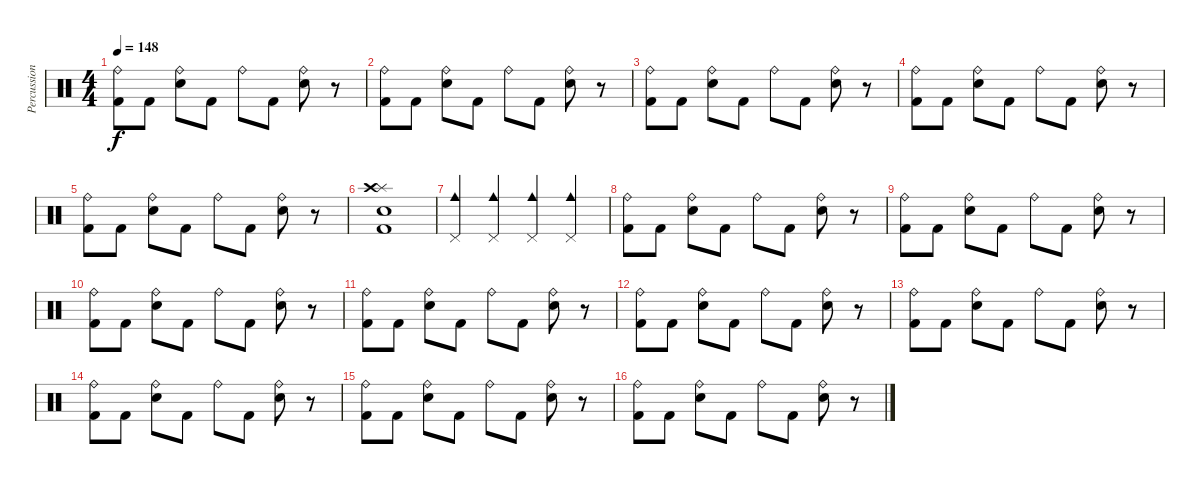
\track ("Percussions" "Percussion") {instrument percussion}
\staff {score}
\articulation defaults
\ts (4 4)
\tempo 148
\clef neutral
\ks c
("Kick (hit) 2" "Ride (bell)").8{dy f} "Kick (hit) 2".8 ("Electric Snare (hit)" "Ride (bell)").8 "Kick (hit) 2".8 "Ride (bell)".8 "Kick (hit) 2".8 ("Electric Snare (hit)" "Ride (bell)").8 r.8 |
("Kick (hit) 2" "Ride (bell)").8 "Kick (hit) 2".8 ("Electric Snare (hit)" "Ride (bell)").8 "Kick (hit) 2".8 "Ride (bell)".8 "Kick (hit) 2".8 ("Electric Snare (hit)" "Ride (bell)").8 r.8 |
("Kick (hit) 2" "Ride (bell)").8 "Kick (hit) 2".8 ("Electric Snare (hit)" "Ride (bell)").8 "Kick (hit) 2".8 "Ride (bell)".8 "Kick (hit) 2".8 ("Electric Snare (hit)" "Ride (bell)").8 r.8 |
("Kick (hit) 2" "Ride (bell)").8 "Kick (hit) 2".8 ("Electric Snare (hit)" "Ride (bell)").8 "Kick (hit) 2".8 "Ride (bell)".8 "Kick (hit) 2".8 ("Electric Snare (hit)" "Ride (bell)").8 r.8 |
("Kick (hit) 2" "Ride (bell)").8 "Kick (hit) 2".8 ("Electric Snare (hit)" "Ride (bell)").8 "Kick (hit) 2".8 "Ride (bell)".8 "Kick (hit) 2".8 ("Electric Snare (hit)" "Ride (bell)").8 r.8 |
("Kick (hit) 2" "Snare (hit) 2" "Splash (hit)" "Crash high (hit)").1 |
("Cowbell medium (hit)" "Pedal Hi-Hat (hit)").4 ("Cowbell medium (hit)" "Pedal Hi-Hat (hit)").4 ("Cowbell medium (hit)" "Pedal Hi-Hat (hit)").4 ("Cowbell medium (hit)" "Pedal Hi-Hat (hit)").4 |
("Kick (hit) 2" "Ride (bell)").8 "Kick (hit) 2".8 ("Electric Snare (hit)" "Ride (bell)").8 "Kick (hit) 2".8 "Ride (bell)".8 "Kick (hit) 2".8 ("Electric Snare (hit)" "Ride (bell)").8 r.8 |
("Kick (hit) 2" "Ride (bell)").8 "Kick (hit) 2".8 ("Electric Snare (hit)" "Ride (bell)").8 "Kick (hit) 2".8 "Ride (bell)".8 "Kick (hit) 2".8 ("Electric Snare (hit)" "Ride (bell)").8 r.8 |
("Kick (hit) 2" "Ride (bell)").8 "Kick (hit) 2".8 ("Electric Snare (hit)" "Ride (bell)").8 "Kick (hit) 2".8 "Ride (bell)".8 "Kick (hit) 2".8 ("Electric Snare (hit)" "Ride (bell)").8 r.8 |
("Kick (hit) 2" "Ride (bell)").8 "Kick (hit) 2".8 ("Electric Snare (hit)" "Ride (bell)").8 "Kick (hit) 2".8 "Ride (bell)".8 "Kick (hit) 2".8 ("Electric Snare (hit)" "Ride (bell)").8 r.8 |
("Kick (hit) 2" "Ride (bell)").8 "Kick (hit) 2".8 ("Electric Snare (hit)" "Ride (bell)").8 "Kick (hit) 2".8 "Ride (bell)".8 "Kick (hit) 2".8 ("Electric Snare (hit)" "Ride (bell)").8 r.8 |
("Kick (hit) 2" "Ride (bell)").8 "Kick (hit) 2".8 ("Electric Snare (hit)" "Ride (bell)").8 "Kick (hit) 2".8 "Ride (bell)".8 "Kick (hit) 2".8 ("Electric Snare (hit)" "Ride (bell)").8 r.8 |
("Kick (hit) 2" "Ride (bell)").8 "Kick (hit) 2".8 ("Electric Snare (hit)" "Ride (bell)").8 "Kick (hit) 2".8 "Ride (bell)".8 "Kick (hit) 2".8 ("Electric Snare (hit)" "Ride (bell)").8 r.8 |
("Kick (hit) 2" "Ride (bell)").8 "Kick (hit) 2".8 ("Electric Snare (hit)" "Ride (bell)").8 "Kick (hit) 2".8 "Ride (bell)".8 "Kick (hit) 2".8 ("Electric Snare (hit)" "Ride (bell)").8 r.8 |
("Kick (hit) 2" "Ride (bell)").8 "Kick (hit) 2".8 ("Electric Snare (hit)" "Ride (bell)").8 "Kick (hit) 2".8 "Ride (bell)".8 "Kick (hit) 2".8 ("Electric Snare (hit)" "Ride (bell)").8 r.8
